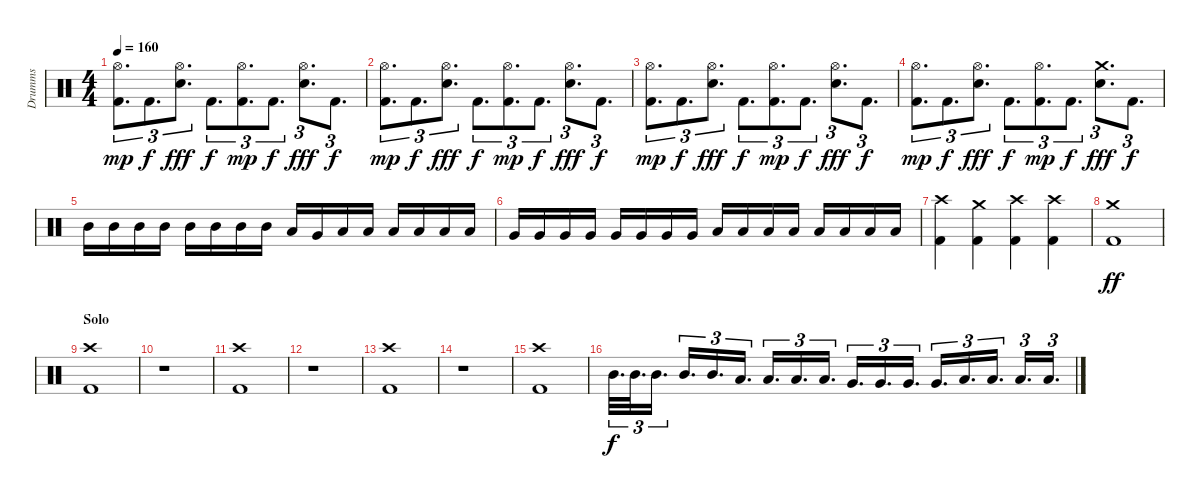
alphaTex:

\track ("Drumms" "Drumms") {instrument percussion}
\staff {score}
\articulation defaults
\ts (4 4)
\tempo 160
\clef neutral
\ks c
("Hi-Hat (open)" "Kick (hit) 2").8{d tu (3 2) dy mp} "Kick (hit) 2".8{d tu (3 2) dy f} ("Hi-Hat (open)" "Electric Snare (hit)").8{d tu (3 2) dy fff} "Kick (hit) 2".8{d tu (3 2) dy f} ("Hi-Hat (open)" "Kick (hit) 2").8{d tu (3 2) dy mp} "Kick (hit) 2".8{d tu (3 2) dy f} ("Hi-Hat (open)" "Electric Snare (hit)").8{d tu (3 2) dy fff} "Kick (hit) 2".8{d tu (3 2) dy f} |
("Hi-Hat (open)" "Kick (hit) 2").8{d tu (3 2) dy mp} "Kick (hit) 2".8{d tu (3 2) dy f} ("Hi-Hat (open)" "Electric Snare (hit)").8{d tu (3 2) dy fff} "Kick (hit) 2".8{d tu (3 2) dy f} ("Hi-Hat (open)" "Kick (hit) 2").8{d tu (3 2) dy mp} "Kick (hit) 2".8{d tu (3 2) dy f} ("Hi-Hat (open)" "Electric Snare (hit)").8{d tu (3 2) dy fff} "Kick (hit) 2".8{d tu (3 2) dy f} |
("Hi-Hat (open)" "Kick (hit) 2").8{d tu (3 2) dy mp} "Kick (hit) 2".8{d tu (3 2) dy f} ("Hi-Hat (open)" "Electric Snare (hit)").8{d tu (3 2) dy fff} "Kick (hit) 2".8{d tu (3 2) dy f} ("Hi-Hat (open)" "Kick (hit) 2").8{d tu (3 2) dy mp} "Kick (hit) 2".8{d tu (3 2) dy f} ("Hi-Hat (open)" "Electric Snare (hit)").8{d tu (3 2) dy fff} "Kick (hit) 2".8{d tu (3 2) dy f} |
("Hi-Hat (open)" "Kick (hit) 2").8{d tu (3 2) dy mp} "Kick (hit) 2".8{d tu (3 2) dy f} ("Hi-Hat (open)" "Electric Snare (hit)").8{d tu (3 2) dy fff} "Kick (hit) 2".8{d tu (3 2) dy f} ("Hi-Hat (open)" "Kick (hit) 2").8{d tu (3 2) dy mp} "Kick (hit) 2".8{d tu (3 2) dy f} ("Crash medium (hit)" "Electric Snare (hit)").8{d tu (3 2) dy fff} "Kick (hit) 2".8{d tu (3 2) dy f} |
\section ("" "")
"Mid Tom (hit)".16 "Mid Tom (hit)".16 "Mid Tom (hit)".16 "Mid Tom (hit)".16 "Mid Tom (hit)".16 "Mid Tom (hit)".16 "Mid Tom (hit)".16 "Mid Tom (hit)".16 "Low Tom (hit)".16 "Very Low Tom (hit)".16 "Low Tom (hit)".16 "Low Tom (hit)".16 "Low Tom (hit)".16 "Low Tom (hit)".16 "Low Tom (hit)".16 "Low Tom (hit)".16 |
"Very Low Tom (hit)".16 "Very Low Tom (hit)".16 "Very Low Tom (hit)".16 "Very Low Tom (hit)".16 "Very Low Tom (hit)".16 "Very Low Tom (hit)".16 "Very Low Tom (hit)".16 "Very Low Tom (hit)".16 "Low Floor Tom (hit)".16 "Low Floor Tom (hit)".16 "Low Floor Tom (hit)".16 "Low Floor Tom (hit)".16 "Low Floor Tom (hit)".16 "Low Floor Tom (hit)".16 "Low Floor Tom (hit)".16 "Low Floor Tom (hit)".16 |
("Crash high (hit)" "Kick (hit) 2").4 ("Crash medium (hit)" "Kick (hit) 2").4 ("Crash high (hit)" "Kick (hit) 2").4 ("Crash high (hit)" "Kick (hit) 2").4 |
("Crash medium (hit)" "Kick (hit) 2").1{dy ff} |
\section ("" "Solo")
("Crash high (hit)" "Kick (hit) 2").1 |
r.1 |
("Crash high (hit)" "Kick (hit) 2").1 |
r.1 |
("Crash high (hit)" "Kick (hit) 2").1 |
r.1 |
("Crash high (hit)" "Kick (hit) 2").1 |
"Mid Tom (hit)".32{d tu (3 2) dy f} "Mid Tom (hit)".32{d tu (3 2)} "Mid Tom (hit)".16{d tu (3 2)} "Mid Tom (hit)".16{d tu (3 2)} "Mid Tom (hit)".16{d tu (3 2)} "Low Tom (hit)".16{d tu (3 2)} "Low Tom (hit)".16{d tu (3 2)} "Low Tom (hit)".16{d tu (3 2)} "Low Tom (hit)".16{d tu (3 2)} "Very Low Tom (hit)".16{d tu (3 2)} "Very Low Tom (hit)".16{d tu (3 2)} "Very Low Tom (hit)".16{d tu (3 2)} "Very Low Tom (hit)".16{d tu (3 2)} "Low Floor Tom (hit)".16{d tu (3 2)} "Low Floor Tom (hit)".16{d tu (3 2)} "Low Floor Tom (hit)".16{d tu (3 2)} "Low Floor Tom (hit)".16{d tu (3 2)}
